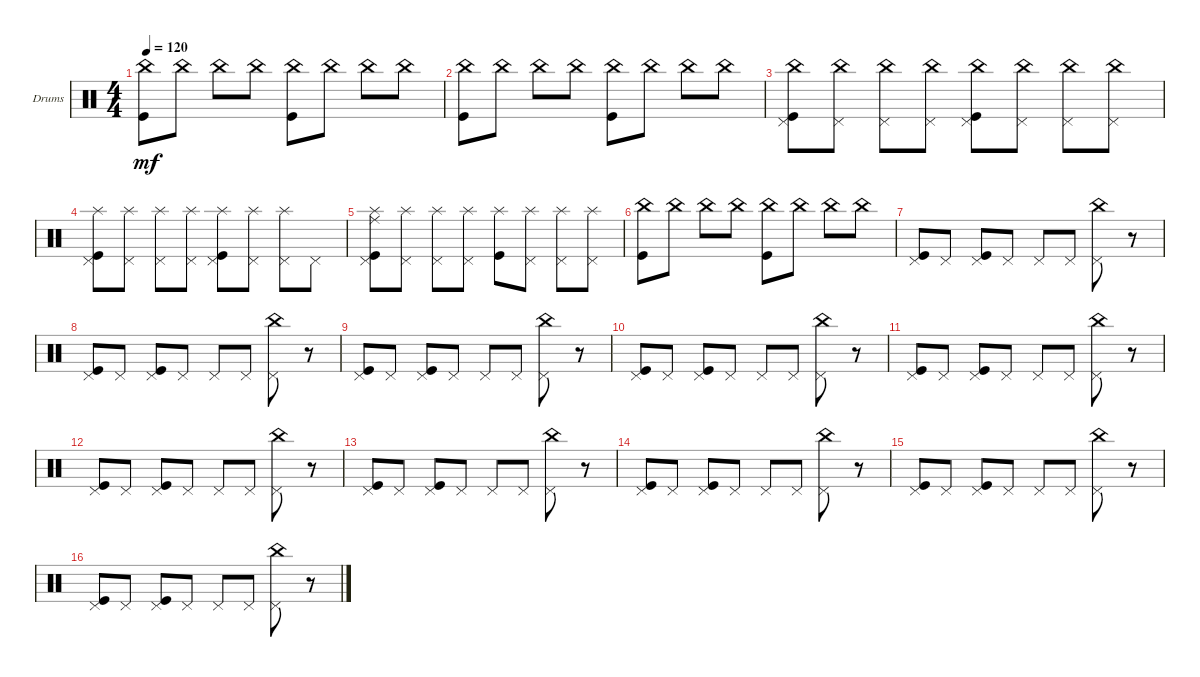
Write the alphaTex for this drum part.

\defaultSystemsLayout 4
\bracketExtendMode groupsimilarinstruments
\firstSystemTrackNameOrientation horizontal
\otherSystemsTrackNameOrientation horizontal
\track ("Drumkit" "Drums") {instrument percussion}
\staff {score}
\articulation defaults
\ts (4 4)
\tempo 120
\clef neutral
\scale
0.333333
\ks c
("China (hit)" "Kick (hit)").8{dy mf} "China (hit)".8 "China (hit)".8 "China (hit)".8 ("China (hit)" "Kick (hit)").8 "China (hit)".8 "China (hit)".8 "China (hit)".8 |
\scale
0.333333 ("China (hit)" "Kick (hit)").8 "China (hit)".8 "China (hit)".8 "China (hit)".8 ("China (hit)" "Kick (hit)").8 "China (hit)".8 "China (hit)".8 "China (hit)".8 |
\scale
0.333333 ("Pedal Hi-Hat (hit)" "China (hit)" "Kick (hit)").8 ("Pedal Hi-Hat (hit)" "China (hit)").8 ("Pedal Hi-Hat (hit)" "China (hit)").8 ("Pedal Hi-Hat (hit)" "China (hit)").8 ("Pedal Hi-Hat (hit)" "China (hit)" "Kick (hit)").8 ("Pedal Hi-Hat (hit)" "China (hit)").8 ("Pedal Hi-Hat (hit)" "China (hit)").8 ("Pedal Hi-Hat (hit)" "China (hit)").8 |
\scale
0.333333 ("Kick (hit)" "Splash (hit)" "Pedal Hi-Hat (hit)").8 ("Splash (hit)" "Pedal Hi-Hat (hit)").8 ("Splash (hit)" "Pedal Hi-Hat (hit)").8 ("Splash (hit)" "Pedal Hi-Hat (hit)").8 ("Kick (hit)" "Splash (hit)" "Pedal Hi-Hat (hit)").8 ("Splash (hit)" "Pedal Hi-Hat (hit)").8 ("Splash (hit)" "Pedal Hi-Hat (hit)").8 "Pedal Hi-Hat (hit)".8 |
\scale
0.333333 ("Kick (hit)" "Ride (middle)" "Splash (hit)" "Pedal Hi-Hat (hit)").8 ("Splash (hit)" "Pedal Hi-Hat (hit)").8 ("Splash (hit)" "Pedal Hi-Hat (hit)").8 ("Splash (hit)" "Pedal Hi-Hat (hit)").8 ("Kick (hit)" "Splash (hit)").8 ("Splash (hit)" "Pedal Hi-Hat (hit)").8 ("Splash (hit)" "Pedal Hi-Hat (hit)").8 ("Splash (hit)" "Pedal Hi-Hat (hit)").8 |
\scale
0.333333 ("China (hit)" "Kick (hit)").8 "China (hit)".8 "China (hit)".8 "China (hit)".8 ("China (hit)" "Kick (hit)").8 "China (hit)".8 "China (hit)".8 "China (hit)".8 |
\scale
0.333333 ("Pedal Hi-Hat (hit)" "Kick (hit)").8 "Pedal Hi-Hat (hit)".8 ("Pedal Hi-Hat (hit)" "Kick (hit)").8 "Pedal Hi-Hat (hit)".8 "Pedal Hi-Hat (hit)".8 "Pedal Hi-Hat (hit)".8 ("Pedal Hi-Hat (hit)" "China (hit)").8 r.8 |
\scale
0.333333 ("Pedal Hi-Hat (hit)" "Kick (hit)").8 "Pedal Hi-Hat (hit)".8 ("Pedal Hi-Hat (hit)" "Kick (hit)").8 "Pedal Hi-Hat (hit)".8 "Pedal Hi-Hat (hit)".8 "Pedal Hi-Hat (hit)".8 ("Pedal Hi-Hat (hit)" "China (hit)").8 r.8 |
\scale
0.333333 ("Pedal Hi-Hat (hit)" "Kick (hit)").8 "Pedal Hi-Hat (hit)".8 ("Pedal Hi-Hat (hit)" "Kick (hit)").8 "Pedal Hi-Hat (hit)".8 "Pedal Hi-Hat (hit)".8 "Pedal Hi-Hat (hit)".8 ("Pedal Hi-Hat (hit)" "China (hit)").8 r.8 |
\scale
0.333333 ("Pedal Hi-Hat (hit)" "Kick (hit)").8 "Pedal Hi-Hat (hit)".8 ("Pedal Hi-Hat (hit)" "Kick (hit)").8 "Pedal Hi-Hat (hit)".8 "Pedal Hi-Hat (hit)".8 "Pedal Hi-Hat (hit)".8 ("Pedal Hi-Hat (hit)" "China (hit)").8 r.8 |
\scale
0.333333 ("Pedal Hi-Hat (hit)" "Kick (hit)").8 "Pedal Hi-Hat (hit)".8 ("Pedal Hi-Hat (hit)" "Kick (hit)").8 "Pedal Hi-Hat (hit)".8 "Pedal Hi-Hat (hit)".8 "Pedal Hi-Hat (hit)".8 ("Pedal Hi-Hat (hit)" "China (hit)").8 r.8 |
\scale
0.333333 ("Pedal Hi-Hat (hit)" "Kick (hit)").8 "Pedal Hi-Hat (hit)".8 ("Pedal Hi-Hat (hit)" "Kick (hit)").8 "Pedal Hi-Hat (hit)".8 "Pedal Hi-Hat (hit)".8 "Pedal Hi-Hat (hit)".8 ("Pedal Hi-Hat (hit)" "China (hit)").8 r.8 |
\scale
0.333333 ("Pedal Hi-Hat (hit)" "Kick (hit)").8 "Pedal Hi-Hat (hit)".8 ("Pedal Hi-Hat (hit)" "Kick (hit)").8 "Pedal Hi-Hat (hit)".8 "Pedal Hi-Hat (hit)".8 "Pedal Hi-Hat (hit)".8 ("Pedal Hi-Hat (hit)" "China (hit)").8 r.8 |
\scale
0.333333 ("Pedal Hi-Hat (hit)" "Kick (hit)").8 "Pedal Hi-Hat (hit)".8 ("Pedal Hi-Hat (hit)" "Kick (hit)").8 "Pedal Hi-Hat (hit)".8 "Pedal Hi-Hat (hit)".8 "Pedal Hi-Hat (hit)".8 ("Pedal Hi-Hat (hit)" "China (hit)").8 r.8 |
\scale
0.333333 ("Pedal Hi-Hat (hit)" "Kick (hit)").8 "Pedal Hi-Hat (hit)".8 ("Pedal Hi-Hat (hit)" "Kick (hit)").8 "Pedal Hi-Hat (hit)".8 "Pedal Hi-Hat (hit)".8 "Pedal Hi-Hat (hit)".8 ("Pedal Hi-Hat (hit)" "China (hit)").8 r.8 |
\scale
0.333333 ("Pedal Hi-Hat (hit)" "Kick (hit)").8 "Pedal Hi-Hat (hit)".8 ("Pedal Hi-Hat (hit)" "Kick (hit)").8 "Pedal Hi-Hat (hit)".8 "Pedal Hi-Hat (hit)".8 "Pedal Hi-Hat (hit)".8 ("Pedal Hi-Hat (hit)" "China (hit)").8 r.8
